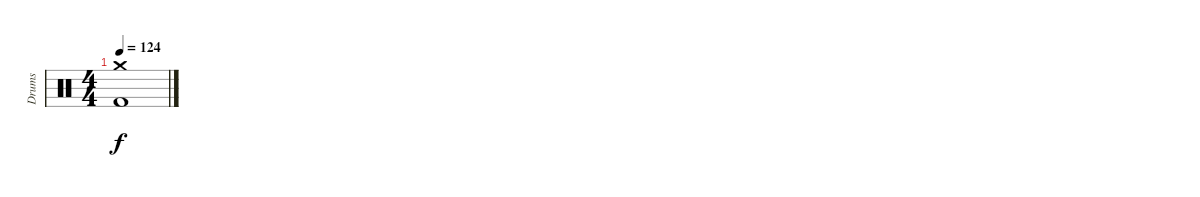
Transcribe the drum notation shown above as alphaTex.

\track ("Drums" "Drums") {instrument percussion}
\staff {score}
\articulation defaults
\ts (4 4)
\tempo 124
\clef neutral
\ks c
("Kick (hit) 2" "Crash medium (hit)").1{dy f}
